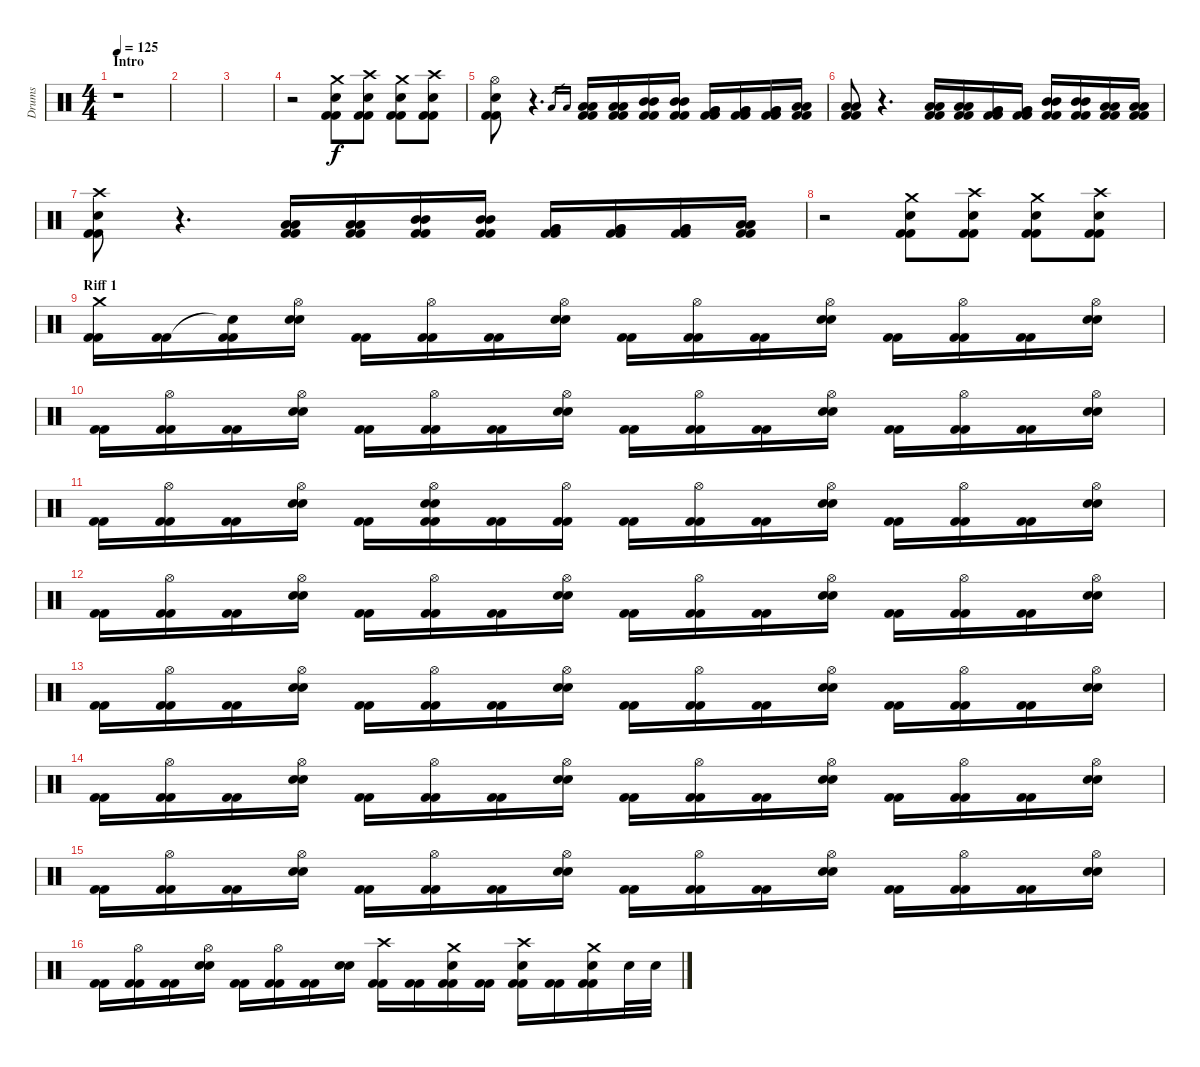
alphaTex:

\track ("Drums" "Drums") {instrument percussion}
\staff {score}
\articulation defaults
\ts (4 4)
\section ("" "Intro")
\tempo 125
\clef neutral
\ks c
r.1{dy f} |
|
|
r.2 ("Crash medium (hit)" "Snare (hit) 2" "Kick (hit) 2" "Kick (hit) 2").8 ("Crash high (hit)" "Snare (hit) 2" "Kick (hit) 2" "Kick (hit) 2").8 ("Crash medium (hit)" "Snare (hit) 2" "Kick (hit) 2" "Kick (hit) 2").8 ("Crash high (hit)" "Snare (hit) 2" "Kick (hit) 2" "Kick (hit) 2").8 |
("Hi-Hat (open)" "Snare (hit) 2" "Kick (hit) 2" "Kick (hit) 2").8 r.4{d} "Low Tom (hit)".16{gr} "Low Tom (hit)".16{gr} ("Low Tom (hit)" "Low Tom (hit)" "Kick (hit) 2" "Kick (hit) 2").16 ("Low Tom (hit)" "Low Tom (hit)" "Kick (hit) 2" "Kick (hit) 2").16 ("Mid Tom (hit)" "Mid Tom (hit)" "Kick (hit) 2" "Kick (hit) 2").16 ("Mid Tom (hit)" "Mid Tom (hit)" "Kick (hit) 2" "Kick (hit) 2").16 ("Very Low Tom (hit)" "Very Low Tom (hit)" "Kick (hit) 2" "Kick (hit) 2").16 ("Very Low Tom (hit)" "Very Low Tom (hit)" "Kick (hit) 2" "Kick (hit) 2").16 ("Very Low Tom (hit)" "Very Low Tom (hit)" "Kick (hit) 2" "Kick (hit) 2").16 ("Low Floor Tom (hit)" "Low Floor Tom (hit)" "Kick (hit) 2" "Kick (hit) 2").16 |
("Low Floor Tom (hit)" "Low Floor Tom (hit)" "Kick (hit) 2" "Kick (hit) 2").8 r.4{d} ("Low Floor Tom (hit)" "Low Floor Tom (hit)" "Kick (hit) 2" "Kick (hit) 2").16 ("Low Floor Tom (hit)" "Low Floor Tom (hit)" "Kick (hit) 2" "Kick (hit) 2").16 ("Very Low Tom (hit)" "Very Low Tom (hit)" "Kick (hit) 2" "Kick (hit) 2").16 ("Very Low Tom (hit)" "Very Low Tom (hit)" "Kick (hit) 2" "Kick (hit) 2").16 ("Mid Tom (hit)" "Mid Tom (hit)" "Kick (hit) 2" "Kick (hit) 2").16 ("Mid Tom (hit)" "Mid Tom (hit)" "Kick (hit) 2" "Kick (hit) 2").16 ("Low Tom (hit)" "Low Tom (hit)" "Kick (hit) 2" "Kick (hit) 2").16 ("Low Tom (hit)" "Low Tom (hit)" "Kick (hit) 2" "Kick (hit) 2").16 |
("Crash high (hit)" "Snare (hit) 2" "Kick (hit) 2" "Kick (hit) 2").8 r.4{d} ("Low Tom (hit)" "Low Tom (hit)" "Kick (hit) 2" "Kick (hit) 2").16 ("Low Tom (hit)" "Low Tom (hit)" "Kick (hit) 2" "Kick (hit) 2").16 ("Mid Tom (hit)" "Mid Tom (hit)" "Kick (hit) 2" "Kick (hit) 2").16 ("Mid Tom (hit)" "Mid Tom (hit)" "Kick (hit) 2" "Kick (hit) 2").16 ("Very Low Tom (hit)" "Very Low Tom (hit)" "Kick (hit) 2" "Kick (hit) 2").16 ("Very Low Tom (hit)" "Very Low Tom (hit)" "Kick (hit) 2" "Kick (hit) 2").16 ("Very Low Tom (hit)" "Very Low Tom (hit)" "Kick (hit) 2" "Kick (hit) 2").16 ("Low Floor Tom (hit)" "Low Floor Tom (hit)" "Kick (hit) 2" "Kick (hit) 2").16 |
r.2 ("Crash medium (hit)" "Snare (hit) 2" "Kick (hit) 2" "Kick (hit) 2").8 ("Crash high (hit)" "Snare (hit) 2" "Kick (hit) 2" "Kick (hit) 2").8 ("Crash medium (hit)" "Snare (hit) 2" "Kick (hit) 2" "Kick (hit) 2").8 ("Crash high (hit)" "Snare (hit) 2" "Kick (hit) 2" "Kick (hit) 2").8 |
\section ("" "Riff 1")
("Crash medium (hit)" "Kick (hit) 2" "Kick (hit) 2").16 ("Kick (hit) 2" "Kick (hit) 2").16 ("Snare (hit)"{t} "Kick (hit) 2" "Kick (hit) 2").16 ("Hi-Hat (open)" "Snare (hit) 2" "Snare (hit) 2").16 ("Kick (hit) 2" "Kick (hit) 2").16 ("Hi-Hat (open)" "Kick (hit) 2" "Kick (hit) 2").16 ("Kick (hit) 2" "Kick (hit) 2").16 ("Hi-Hat (open)" "Snare (hit) 2" "Snare (hit) 2").16 ("Kick (hit) 2" "Kick (hit) 2").16 ("Hi-Hat (open)" "Kick (hit) 2" "Kick (hit) 2").16 ("Kick (hit) 2" "Kick (hit) 2").16 ("Hi-Hat (open)" "Snare (hit) 2" "Snare (hit) 2").16 ("Kick (hit) 2" "Kick (hit) 2").16 ("Hi-Hat (open)" "Kick (hit) 2" "Kick (hit) 2").16 ("Kick (hit) 2" "Kick (hit) 2").16 ("Hi-Hat (open)" "Snare (hit) 2" "Snare (hit) 2").16 |
("Kick (hit) 2" "Kick (hit) 2").16 ("Hi-Hat (open)" "Kick (hit) 2" "Kick (hit) 2").16 ("Kick (hit) 2" "Kick (hit) 2").16 ("Hi-Hat (open)" "Snare (hit) 2" "Snare (hit) 2").16 ("Kick (hit) 2" "Kick (hit) 2").16 ("Hi-Hat (open)" "Kick (hit) 2" "Kick (hit) 2").16 ("Kick (hit) 2" "Kick (hit) 2").16 ("Hi-Hat (open)" "Snare (hit) 2" "Snare (hit) 2").16 ("Kick (hit) 2" "Kick (hit) 2").16 ("Hi-Hat (open)" "Kick (hit) 2" "Kick (hit) 2").16 ("Kick (hit) 2" "Kick (hit) 2").16 ("Hi-Hat (open)" "Snare (hit) 2" "Snare (hit) 2").16 ("Kick (hit) 2" "Kick (hit) 2").16 ("Hi-Hat (open)" "Kick (hit) 2" "Kick (hit) 2").16 ("Kick (hit) 2" "Kick (hit) 2").16 ("Hi-Hat (open)" "Snare (hit) 2" "Snare (hit) 2").16 |
("Kick (hit) 2" "Kick (hit) 2").16 ("Hi-Hat (open)" "Kick (hit) 2" "Kick (hit) 2").16 ("Kick (hit) 2" "Kick (hit) 2").16 ("Hi-Hat (open)" "Snare (hit) 2" "Snare (hit) 2").16 ("Kick (hit) 2" "Kick (hit) 2").16 ("Hi-Hat (open)" "Snare (hit) 2" "Snare (hit) 2" "Kick (hit) 2" "Kick (hit) 2").16 ("Kick (hit) 2" "Kick (hit) 2").16 ("Hi-Hat (open)" "Kick (hit) 2" "Kick (hit) 2").16 ("Kick (hit) 2" "Kick (hit) 2").16 ("Hi-Hat (open)" "Kick (hit) 2" "Kick (hit) 2").16 ("Kick (hit) 2" "Kick (hit) 2").16 ("Hi-Hat (open)" "Snare (hit) 2" "Snare (hit) 2").16 ("Kick (hit) 2" "Kick (hit) 2").16 ("Hi-Hat (open)" "Kick (hit) 2" "Kick (hit) 2").16 ("Kick (hit) 2" "Kick (hit) 2").16 ("Hi-Hat (open)" "Snare (hit) 2" "Snare (hit) 2").16 |
("Kick (hit) 2" "Kick (hit) 2").16 ("Hi-Hat (open)" "Kick (hit) 2" "Kick (hit) 2").16 ("Kick (hit) 2" "Kick (hit) 2").16 ("Hi-Hat (open)" "Snare (hit) 2" "Snare (hit) 2").16 ("Kick (hit) 2" "Kick (hit) 2").16 ("Hi-Hat (open)" "Kick (hit) 2" "Kick (hit) 2").16 ("Kick (hit) 2" "Kick (hit) 2").16 ("Hi-Hat (open)" "Snare (hit) 2" "Snare (hit) 2").16 ("Kick (hit) 2" "Kick (hit) 2").16 ("Hi-Hat (open)" "Kick (hit) 2" "Kick (hit) 2").16 ("Kick (hit) 2" "Kick (hit) 2").16 ("Hi-Hat (open)" "Snare (hit) 2" "Snare (hit) 2").16 ("Kick (hit) 2" "Kick (hit) 2").16 ("Hi-Hat (open)" "Kick (hit) 2" "Kick (hit) 2").16 ("Kick (hit) 2" "Kick (hit) 2").16 ("Hi-Hat (open)" "Snare (hit) 2" "Snare (hit) 2").16 |
("Kick (hit) 2" "Kick (hit) 2").16 ("Hi-Hat (open)" "Kick (hit) 2" "Kick (hit) 2").16 ("Kick (hit) 2" "Kick (hit) 2").16 ("Hi-Hat (open)" "Snare (hit) 2" "Snare (hit) 2").16 ("Kick (hit) 2" "Kick (hit) 2").16 ("Hi-Hat (open)" "Kick (hit) 2" "Kick (hit) 2").16 ("Kick (hit) 2" "Kick (hit) 2").16 ("Hi-Hat (open)" "Snare (hit) 2" "Snare (hit) 2").16 ("Kick (hit) 2" "Kick (hit) 2").16 ("Hi-Hat (open)" "Kick (hit) 2" "Kick (hit) 2").16 ("Kick (hit) 2" "Kick (hit) 2").16 ("Hi-Hat (open)" "Snare (hit) 2" "Snare (hit) 2").16 ("Kick (hit) 2" "Kick (hit) 2").16 ("Hi-Hat (open)" "Kick (hit) 2" "Kick (hit) 2").16 ("Kick (hit) 2" "Kick (hit) 2").16 ("Hi-Hat (open)" "Snare (hit) 2" "Snare (hit) 2").16 |
("Kick (hit) 2" "Kick (hit) 2").16 ("Hi-Hat (open)" "Kick (hit) 2" "Kick (hit) 2").16 ("Kick (hit) 2" "Kick (hit) 2").16 ("Hi-Hat (open)" "Snare (hit) 2" "Snare (hit) 2").16 ("Kick (hit) 2" "Kick (hit) 2").16 ("Hi-Hat (open)" "Kick (hit) 2" "Kick (hit) 2").16 ("Kick (hit) 2" "Kick (hit) 2").16 ("Hi-Hat (open)" "Snare (hit) 2" "Snare (hit) 2").16 ("Kick (hit) 2" "Kick (hit) 2").16 ("Hi-Hat (open)" "Kick (hit) 2" "Kick (hit) 2").16 ("Kick (hit) 2" "Kick (hit) 2").16 ("Hi-Hat (open)" "Snare (hit) 2" "Snare (hit) 2").16 ("Kick (hit) 2" "Kick (hit) 2").16 ("Hi-Hat (open)" "Kick (hit) 2" "Kick (hit) 2").16 ("Kick (hit) 2" "Kick (hit) 2").16 ("Hi-Hat (open)" "Snare (hit) 2" "Snare (hit) 2").16 |
("Kick (hit) 2" "Kick (hit) 2").16 ("Hi-Hat (open)" "Kick (hit) 2" "Kick (hit) 2").16 ("Kick (hit) 2" "Kick (hit) 2").16 ("Hi-Hat (open)" "Snare (hit) 2" "Snare (hit) 2").16 ("Kick (hit) 2" "Kick (hit) 2").16 ("Hi-Hat (open)" "Kick (hit) 2" "Kick (hit) 2").16 ("Kick (hit) 2" "Kick (hit) 2").16 ("Hi-Hat (open)" "Snare (hit) 2" "Snare (hit) 2").16 ("Kick (hit) 2" "Kick (hit) 2").16 ("Hi-Hat (open)" "Kick (hit) 2" "Kick (hit) 2").16 ("Kick (hit) 2" "Kick (hit) 2").16 ("Hi-Hat (open)" "Snare (hit) 2" "Snare (hit) 2").16 ("Kick (hit) 2" "Kick (hit) 2").16 ("Hi-Hat (open)" "Kick (hit) 2" "Kick (hit) 2").16 ("Kick (hit) 2" "Kick (hit) 2").16 ("Hi-Hat (open)" "Snare (hit) 2" "Snare (hit) 2").16 |
("Kick (hit) 2" "Kick (hit) 2").16 ("Hi-Hat (open)" "Kick (hit) 2" "Kick (hit) 2").16 ("Kick (hit) 2" "Kick (hit) 2").16 ("Hi-Hat (open)" "Snare (hit) 2" "Snare (hit) 2").16 ("Kick (hit) 2" "Kick (hit) 2").16 ("Hi-Hat (open)" "Kick (hit) 2" "Kick (hit) 2").16 ("Kick (hit) 2" "Kick (hit) 2").16 ("Snare (hit) 2" "Snare (hit) 2").16 ("Crash high (hit)" "Kick (hit) 2" "Kick (hit) 2").16 ("Kick (hit) 2" "Kick (hit) 2").16 ("Crash medium (hit)" "Snare (hit) 2" "Kick (hit) 2" "Kick (hit) 2").16 ("Kick (hit) 2" "Kick (hit) 2").16 ("Crash high (hit)" "Snare (hit) 2" "Kick (hit) 2" "Kick (hit) 2").16 ("Kick (hit) 2" "Kick (hit) 2").16 ("Crash medium (hit)" "Snare (hit) 2" "Kick (hit) 2" "Kick (hit) 2").16 "Snare (hit) 2".32 "Snare (hit) 2".32
